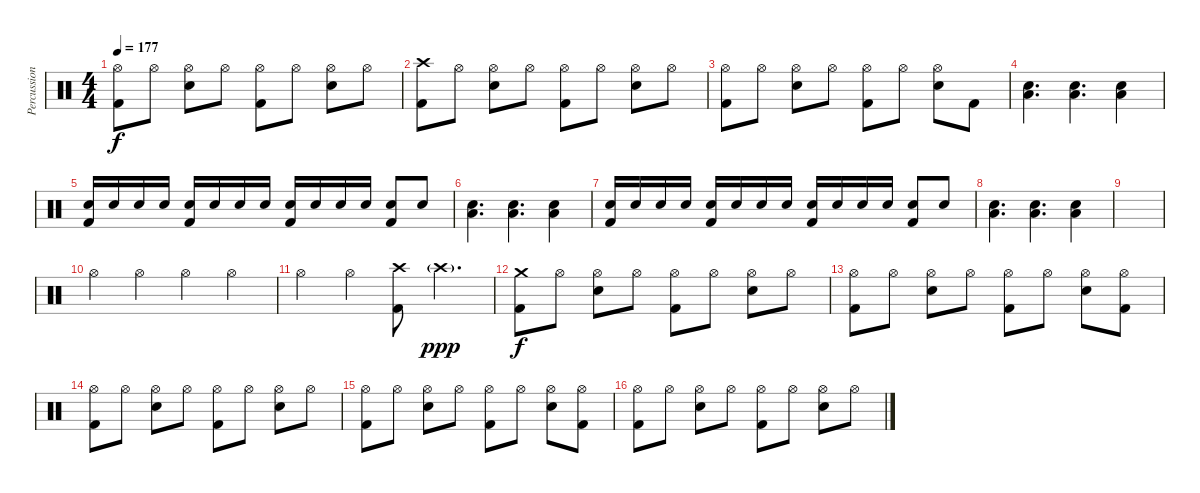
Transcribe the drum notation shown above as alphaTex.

\track ("Percussion" "Percussion") {instrument percussion}
\staff {score}
\articulation defaults
\ts (4 4)
\tempo 177
\clef neutral
\ks c
("Hi-Hat (open)" "Kick (hit) 2").8{dy f} "Hi-Hat (open)".8 ("Hi-Hat (open)" "Snare (hit) 2").8 "Hi-Hat (open)".8 ("Hi-Hat (open)" "Kick (hit) 2").8 "Hi-Hat (open)".8 ("Hi-Hat (open)" "Snare (hit) 2").8 "Hi-Hat (open)".8 |
("Crash high (hit)" "Kick (hit) 2").8 "Hi-Hat (open)".8 ("Hi-Hat (open)" "Snare (hit) 2").8 "Hi-Hat (open)".8 ("Hi-Hat (open)" "Kick (hit) 2").8 "Hi-Hat (open)".8 ("Hi-Hat (open)" "Snare (hit) 2").8 "Hi-Hat (open)".8 |
("Hi-Hat (open)" "Kick (hit) 2").8 "Hi-Hat (open)".8 ("Hi-Hat (open)" "Snare (hit) 2").8 "Hi-Hat (open)".8 ("Hi-Hat (open)" "Kick (hit) 2").8 "Hi-Hat (open)".8 ("Hi-Hat (open)" "Snare (hit) 2").8 "Kick (hit) 2".8 |
("Snare (hit) 2" "Low Floor Tom (hit)").4{d} ("Snare (hit) 2" "Low Floor Tom (hit)").4{d} ("Snare (hit) 2" "Low Floor Tom (hit)").4 |
("Snare (hit) 2" "Kick (hit) 2").16 "Snare (hit) 2".16 "Snare (hit) 2".16 "Snare (hit) 2".16 ("Snare (hit) 2" "Kick (hit) 2").16 "Snare (hit) 2".16 "Snare (hit) 2".16 "Snare (hit) 2".16 ("Snare (hit) 2" "Kick (hit) 2").16 "Snare (hit) 2".16 "Snare (hit) 2".16 "Snare (hit) 2".16 ("Snare (hit) 2" "Kick (hit) 2").8 "Snare (hit) 2".8 |
("Snare (hit) 2" "Low Floor Tom (hit)").4{d} ("Snare (hit) 2" "Low Floor Tom (hit)").4{d} ("Snare (hit) 2" "Low Floor Tom (hit)").4 |
("Snare (hit) 2" "Kick (hit) 2").16 "Snare (hit) 2".16 "Snare (hit) 2".16 "Snare (hit) 2".16 ("Snare (hit) 2" "Kick (hit) 2").16 "Snare (hit) 2".16 "Snare (hit) 2".16 "Snare (hit) 2".16 ("Snare (hit) 2" "Kick (hit) 2").16 "Snare (hit) 2".16 "Snare (hit) 2".16 "Snare (hit) 2".16 ("Snare (hit) 2" "Kick (hit) 2").8 "Snare (hit) 2".8 |
("Snare (hit) 2" "Low Floor Tom (hit)").4{d} ("Snare (hit) 2" "Low Floor Tom (hit)").4{d} ("Snare (hit) 2" "Low Floor Tom (hit)").4 |
|
"Hi-Hat (open)".4 "Hi-Hat (open)".4 "Hi-Hat (open)".4 "Hi-Hat (open)".4 |
"Hi-Hat (open)".4 "Hi-Hat (open)".4 ("Crash high (hit)" "Kick (hit) 2").8 "Crash high (hit)"{g}.4{d dy ppp} |
("Crash medium (hit)" "Kick (hit) 2").8{dy f} "Hi-Hat (open)".8 ("Hi-Hat (open)" "Snare (hit) 2").8 "Hi-Hat (open)".8 ("Hi-Hat (open)" "Kick (hit) 2").8 "Hi-Hat (open)".8 ("Hi-Hat (open)" "Snare (hit) 2").8 "Hi-Hat (open)".8 |
("Hi-Hat (open)" "Kick (hit) 2").8 "Hi-Hat (open)".8 ("Hi-Hat (open)" "Snare (hit) 2").8 "Hi-Hat (open)".8 ("Hi-Hat (open)" "Kick (hit) 2").8 "Hi-Hat (open)".8 ("Hi-Hat (open)" "Snare (hit) 2").8 ("Hi-Hat (open)" "Kick (hit) 2").8 |
("Hi-Hat (open)" "Kick (hit) 2").8 "Hi-Hat (open)".8 ("Hi-Hat (open)" "Snare (hit) 2").8 "Hi-Hat (open)".8 ("Hi-Hat (open)" "Kick (hit) 2").8 "Hi-Hat (open)".8 ("Hi-Hat (open)" "Snare (hit) 2").8 "Hi-Hat (open)".8 |
("Hi-Hat (open)" "Kick (hit) 2").8 "Hi-Hat (open)".8 ("Hi-Hat (open)" "Snare (hit) 2").8 "Hi-Hat (open)".8 ("Hi-Hat (open)" "Kick (hit) 2").8 "Hi-Hat (open)".8 ("Hi-Hat (open)" "Snare (hit) 2").8 ("Hi-Hat (open)" "Kick (hit) 2").8 |
("Hi-Hat (open)" "Kick (hit) 2").8 "Hi-Hat (open)".8 ("Hi-Hat (open)" "Snare (hit) 2").8 "Hi-Hat (open)".8 ("Hi-Hat (open)" "Kick (hit) 2").8 "Hi-Hat (open)".8 ("Hi-Hat (open)" "Snare (hit) 2").8 "Hi-Hat (open)".8
